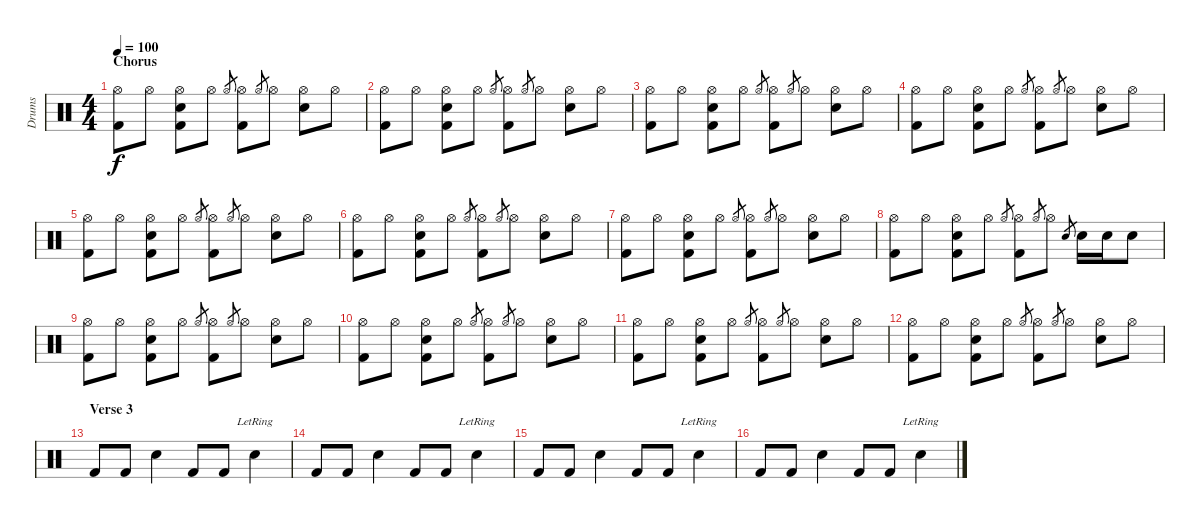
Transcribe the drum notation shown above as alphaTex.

\track ("Drums" "Drums") {instrument percussion}
\staff {score}
\articulation defaults
\ts (4 4)
\section ("" "Chorus")
\tempo 100
\clef neutral
\ks c
("Hi-Hat (open)" "Kick (hit) 2").8{dy f} "Hi-Hat (open)".8 ("Electric Snare (hit)" "Hi-Hat (open)" "Kick (hit) 2").8 "Hi-Hat (open)".8 "Hi-Hat (open)".8{gr} ("Hi-Hat (open)" "Kick (hit) 2").8 "Hi-Hat (open)".8{gr} "Hi-Hat (open)".8 ("Electric Snare (hit)" "Hi-Hat (open)").8 "Hi-Hat (open)".8 |
("Hi-Hat (open)" "Kick (hit) 2").8 "Hi-Hat (open)".8 ("Electric Snare (hit)" "Hi-Hat (open)" "Kick (hit) 2").8 "Hi-Hat (open)".8 "Hi-Hat (open)".8{gr} ("Hi-Hat (open)" "Kick (hit) 2").8 "Hi-Hat (open)".8{gr} "Hi-Hat (open)".8 ("Electric Snare (hit)" "Hi-Hat (open)").8 "Hi-Hat (open)".8 |
("Hi-Hat (open)" "Kick (hit) 2").8 "Hi-Hat (open)".8 ("Electric Snare (hit)" "Hi-Hat (open)" "Kick (hit) 2").8 "Hi-Hat (open)".8 "Hi-Hat (open)".8{gr} ("Hi-Hat (open)" "Kick (hit) 2").8 "Hi-Hat (open)".8{gr} "Hi-Hat (open)".8 ("Electric Snare (hit)" "Hi-Hat (open)").8 "Hi-Hat (open)".8 |
("Hi-Hat (open)" "Kick (hit) 2").8 "Hi-Hat (open)".8 ("Electric Snare (hit)" "Hi-Hat (open)" "Kick (hit) 2").8 "Hi-Hat (open)".8 "Hi-Hat (open)".8{gr} ("Hi-Hat (open)" "Kick (hit) 2").8 "Hi-Hat (open)".8{gr} "Hi-Hat (open)".8 ("Electric Snare (hit)" "Hi-Hat (open)").8 "Hi-Hat (open)".8 |
("Hi-Hat (open)" "Kick (hit) 2").8 "Hi-Hat (open)".8 ("Electric Snare (hit)" "Hi-Hat (open)" "Kick (hit) 2").8 "Hi-Hat (open)".8 "Hi-Hat (open)".8{gr} ("Hi-Hat (open)" "Kick (hit) 2").8 "Hi-Hat (open)".8{gr} "Hi-Hat (open)".8 ("Electric Snare (hit)" "Hi-Hat (open)").8 "Hi-Hat (open)".8 |
("Hi-Hat (open)" "Kick (hit) 2").8 "Hi-Hat (open)".8 ("Electric Snare (hit)" "Hi-Hat (open)" "Kick (hit) 2").8 "Hi-Hat (open)".8 "Hi-Hat (open)".8{gr} ("Hi-Hat (open)" "Kick (hit) 2").8 "Hi-Hat (open)".8{gr} "Hi-Hat (open)".8 ("Electric Snare (hit)" "Hi-Hat (open)").8 "Hi-Hat (open)".8 |
("Hi-Hat (open)" "Kick (hit) 2").8 "Hi-Hat (open)".8 ("Electric Snare (hit)" "Hi-Hat (open)" "Kick (hit) 2").8 "Hi-Hat (open)".8 "Hi-Hat (open)".8{gr} ("Hi-Hat (open)" "Kick (hit) 2").8 "Hi-Hat (open)".8{gr} "Hi-Hat (open)".8 ("Electric Snare (hit)" "Hi-Hat (open)").8 "Hi-Hat (open)".8 |
("Hi-Hat (open)" "Kick (hit) 2").8 "Hi-Hat (open)".8 ("Electric Snare (hit)" "Hi-Hat (open)" "Kick (hit) 2").8 "Hi-Hat (open)".8 "Hi-Hat (open)".8{gr} ("Hi-Hat (open)" "Kick (hit) 2").8 "Hi-Hat (open)".8{gr} "Hi-Hat (open)".8 "Electric Snare (hit)".8{gr} "Electric Snare (hit)".16 "Electric Snare (hit)".16 "Electric Snare (hit)".8 |
("Hi-Hat (open)" "Kick (hit) 2").8 "Hi-Hat (open)".8 ("Electric Snare (hit)" "Hi-Hat (open)" "Kick (hit) 2").8 "Hi-Hat (open)".8 "Hi-Hat (open)".8{gr} ("Hi-Hat (open)" "Kick (hit) 2").8 "Hi-Hat (open)".8{gr} "Hi-Hat (open)".8 ("Electric Snare (hit)" "Hi-Hat (open)").8 "Hi-Hat (open)".8 |
("Hi-Hat (open)" "Kick (hit) 2").8 "Hi-Hat (open)".8 ("Electric Snare (hit)" "Hi-Hat (open)" "Kick (hit) 2").8 "Hi-Hat (open)".8 "Hi-Hat (open)".8{gr} ("Hi-Hat (open)" "Kick (hit) 2").8 "Hi-Hat (open)".8{gr} "Hi-Hat (open)".8 ("Electric Snare (hit)" "Hi-Hat (open)").8 "Hi-Hat (open)".8 |
("Hi-Hat (open)" "Kick (hit) 2").8 "Hi-Hat (open)".8 ("Electric Snare (hit)" "Hi-Hat (open)" "Kick (hit) 2").8 "Hi-Hat (open)".8 "Hi-Hat (open)".8{gr} ("Hi-Hat (open)" "Kick (hit) 2").8 "Hi-Hat (open)".8{gr} "Hi-Hat (open)".8 ("Electric Snare (hit)" "Hi-Hat (open)").8 "Hi-Hat (open)".8 |
("Hi-Hat (open)" "Kick (hit) 2").8 "Hi-Hat (open)".8 ("Electric Snare (hit)" "Hi-Hat (open)" "Kick (hit) 2").8 "Hi-Hat (open)".8 "Hi-Hat (open)".8{gr} ("Hi-Hat (open)" "Kick (hit) 2").8 "Hi-Hat (open)".8{gr} "Hi-Hat (open)".8 ("Electric Snare (hit)" "Hi-Hat (open)").8 "Hi-Hat (open)".8 |
\section ("" "Verse 3")
"Kick (hit) 2".8 "Kick (hit) 2".8 "Electric Snare (hit)".4 "Kick (hit) 2".8 "Kick (hit) 2".8 "Electric Snare (hit)"{lr}.4 |
"Kick (hit) 2".8 "Kick (hit) 2".8 "Electric Snare (hit)".4 "Kick (hit) 2".8 "Kick (hit) 2".8 "Electric Snare (hit)"{lr}.4 |
"Kick (hit) 2".8 "Kick (hit) 2".8 "Electric Snare (hit)".4 "Kick (hit) 2".8 "Kick (hit) 2".8 "Electric Snare (hit)"{lr}.4 |
"Kick (hit) 2".8 "Kick (hit) 2".8 "Electric Snare (hit)".4 "Kick (hit) 2".8 "Kick (hit) 2".8 "Electric Snare (hit)"{lr}.4
